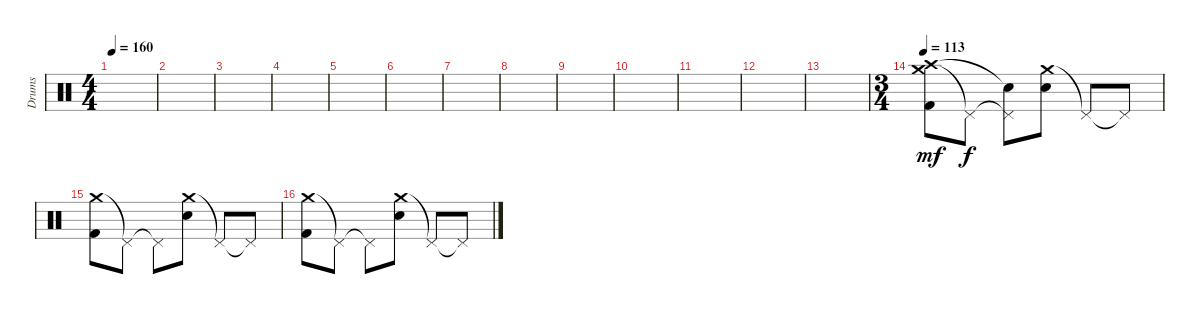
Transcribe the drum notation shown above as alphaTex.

\track ("Drums" "Drums") {instrument percussion}
\staff {score}
\articulation defaults
\ts (4 4)
\tempo 160
\clef neutral
\ks c
|
|
|
|
|
|
|
|
|
|
|
|
|
\ts (3 4)
\tempo 113
("Crash medium (hit)" "Crash high (hit)" "Kick (hit) 2").8{dy mf} "Pedal Hi-Hat (hit)"{t}.8{dy f} ("Pedal Hi-Hat (hit)"{t} "Snare (hit)"{t}).8 ("Crash medium (hit)" "Electric Snare (hit)").8 "Pedal Hi-Hat (hit)"{t}.8 "Pedal Hi-Hat (hit)"{t}.8 |
("Crash medium (hit)" "Kick (hit) 2").8 "Pedal Hi-Hat (hit)"{t}.8 "Pedal Hi-Hat (hit)"{t}.8 ("Crash medium (hit)" "Electric Snare (hit)").8 "Pedal Hi-Hat (hit)"{t}.8 "Pedal Hi-Hat (hit)"{t}.8 |
("Crash medium (hit)" "Kick (hit) 2").8 "Pedal Hi-Hat (hit)"{t}.8 "Pedal Hi-Hat (hit)"{t}.8 ("Crash medium (hit)" "Electric Snare (hit)").8 "Pedal Hi-Hat (hit)"{t}.8 "Pedal Hi-Hat (hit)"{t}.8
